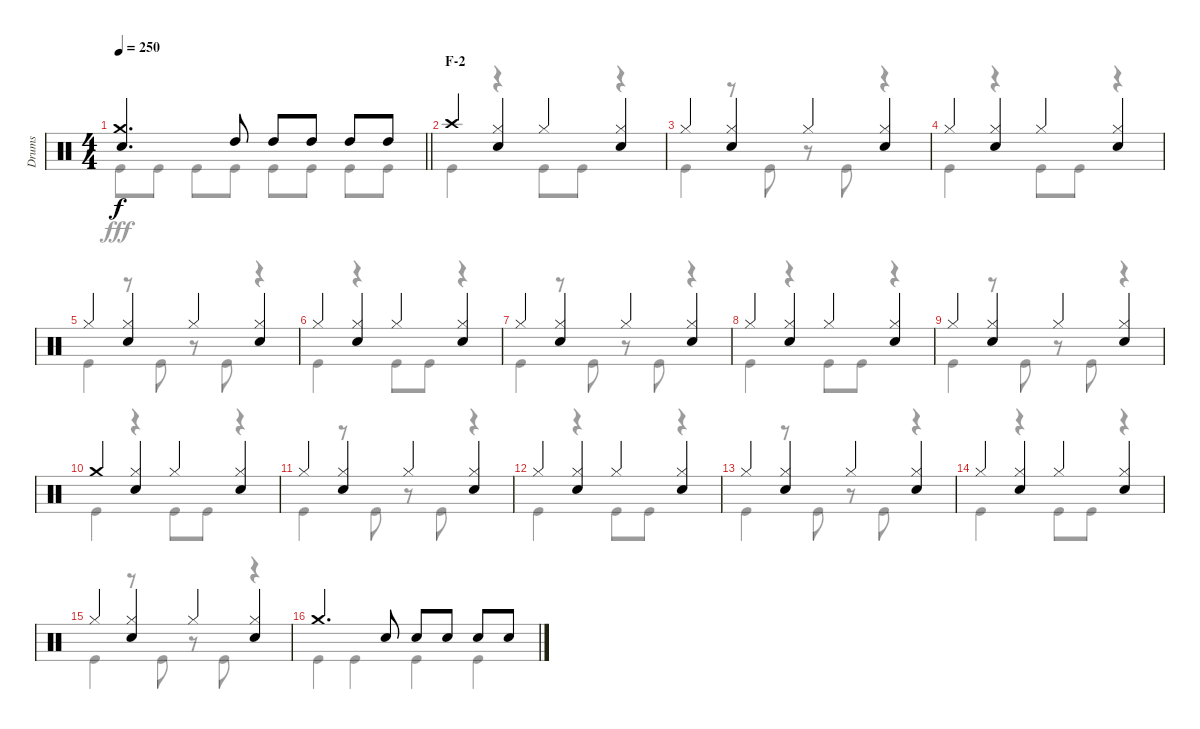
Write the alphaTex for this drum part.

\track ("Drums" "Drums") {instrument percussion}
\staff {score}
\articulation defaults
\voice
\ts (4 4)
\tempo 250
\clef neutral
\barLineRight lightlight
\ks c
("Crash medium (hit)" "Snare (hit) 2").4{d dy f} "High Tom (hit)".8 "High Tom (hit)".8 "High Tom (hit)".8 "High Tom (hit)".8 "High Tom (hit)".8 |
\section ("" "F-2")
"Crash high (hit)".4 ("Hi-Hat (closed)" "Snare (hit) 2").4 "Hi-Hat (closed)".4 ("Hi-Hat (closed)" "Snare (hit) 2").4 |
"Hi-Hat (closed)".4 ("Hi-Hat (closed)" "Snare (hit) 2").4 "Hi-Hat (closed)".4 ("Hi-Hat (closed)" "Snare (hit) 2").4 |
"Hi-Hat (closed)".4 ("Hi-Hat (closed)" "Snare (hit) 2").4 "Hi-Hat (closed)".4 ("Hi-Hat (closed)" "Snare (hit) 2").4 |
"Hi-Hat (closed)".4 ("Hi-Hat (closed)" "Snare (hit) 2").4 "Hi-Hat (closed)".4 ("Hi-Hat (closed)" "Snare (hit) 2").4 |
"Hi-Hat (closed)".4 ("Hi-Hat (closed)" "Snare (hit) 2").4 "Hi-Hat (closed)".4 ("Hi-Hat (closed)" "Snare (hit) 2").4 |
"Hi-Hat (closed)".4 ("Hi-Hat (closed)" "Snare (hit) 2").4 "Hi-Hat (closed)".4 ("Hi-Hat (closed)" "Snare (hit) 2").4 |
"Hi-Hat (closed)".4 ("Hi-Hat (closed)" "Snare (hit) 2").4 "Hi-Hat (closed)".4 ("Hi-Hat (closed)" "Snare (hit) 2").4 |
"Hi-Hat (closed)".4 ("Hi-Hat (closed)" "Snare (hit) 2").4 "Hi-Hat (closed)".4 ("Hi-Hat (closed)" "Snare (hit) 2").4 |
"Crash medium (hit)".4 ("Hi-Hat (closed)" "Snare (hit) 2").4 "Hi-Hat (closed)".4 ("Hi-Hat (closed)" "Snare (hit) 2").4 |
"Hi-Hat (closed)".4 ("Hi-Hat (closed)" "Snare (hit) 2").4 "Hi-Hat (closed)".4 ("Hi-Hat (closed)" "Snare (hit) 2").4 |
"Hi-Hat (closed)".4 ("Hi-Hat (closed)" "Snare (hit) 2").4 "Hi-Hat (closed)".4 ("Hi-Hat (closed)" "Snare (hit) 2").4 |
"Hi-Hat (closed)".4 ("Hi-Hat (closed)" "Snare (hit) 2").4 "Hi-Hat (closed)".4 ("Hi-Hat (closed)" "Snare (hit) 2").4 |
"Hi-Hat (closed)".4 ("Hi-Hat (closed)" "Snare (hit) 2").4 "Hi-Hat (closed)".4 ("Hi-Hat (closed)" "Snare (hit) 2").4 |
"Hi-Hat (closed)".4 ("Hi-Hat (closed)" "Snare (hit) 2").4 "Hi-Hat (closed)".4 ("Hi-Hat (closed)" "Snare (hit) 2").4 |
"Crash medium (hit)".4{d} "Snare (hit) 2".8 "Snare (hit) 2".8 "Snare (hit) 2".8 "Snare (hit) 2".8 "Snare (hit) 2".8
\voice
\clef neutral
\ottava regular
\simile none
\barLineRight lightlight
\ks c "Kick (hit)".8{dy fff} "Kick (hit)".8 "Kick (hit)".8 "Kick (hit)".8 "Kick (hit)".8 "Kick (hit)".8 "Kick (hit)".8 "Kick (hit)".8
|
"Kick (hit)".4 r.4 "Kick (hit)".8 "Kick (hit)".8 r.4 |
"Kick (hit)".4 r.8 "Kick (hit)".8 r.8 "Kick (hit)".8 r.4 |
"Kick (hit)".4 r.4 "Kick (hit)".8 "Kick (hit)".8 r.4 |
"Kick (hit)".4 r.8 "Kick (hit)".8 r.8 "Kick (hit)".8 r.4 |
"Kick (hit)".4 r.4 "Kick (hit)".8 "Kick (hit)".8 r.4 |
"Kick (hit)".4 r.8 "Kick (hit)".8 r.8 "Kick (hit)".8 r.4 |
"Kick (hit)".4 r.4 "Kick (hit)".8 "Kick (hit)".8 r.4 |
"Kick (hit)".4 r.8 "Kick (hit)".8 r.8 "Kick (hit)".8 r.4 |
"Kick (hit)".4 r.4 "Kick (hit)".8 "Kick (hit)".8 r.4 |
"Kick (hit)".4 r.8 "Kick (hit)".8 r.8 "Kick (hit)".8 r.4 |
"Kick (hit)".4 r.4 "Kick (hit)".8 "Kick (hit)".8 r.4 |
"Kick (hit)".4 r.8 "Kick (hit)".8 r.8 "Kick (hit)".8 r.4 |
"Kick (hit)".4 r.4 "Kick (hit)".8 "Kick (hit)".8 r.4 |
"Kick (hit)".4 r.8 "Kick (hit)".8 r.8 "Kick (hit)".8 r.4 |
"Kick (hit)".4 "Kick (hit)".4 "Kick (hit)".4 "Kick (hit)".4
